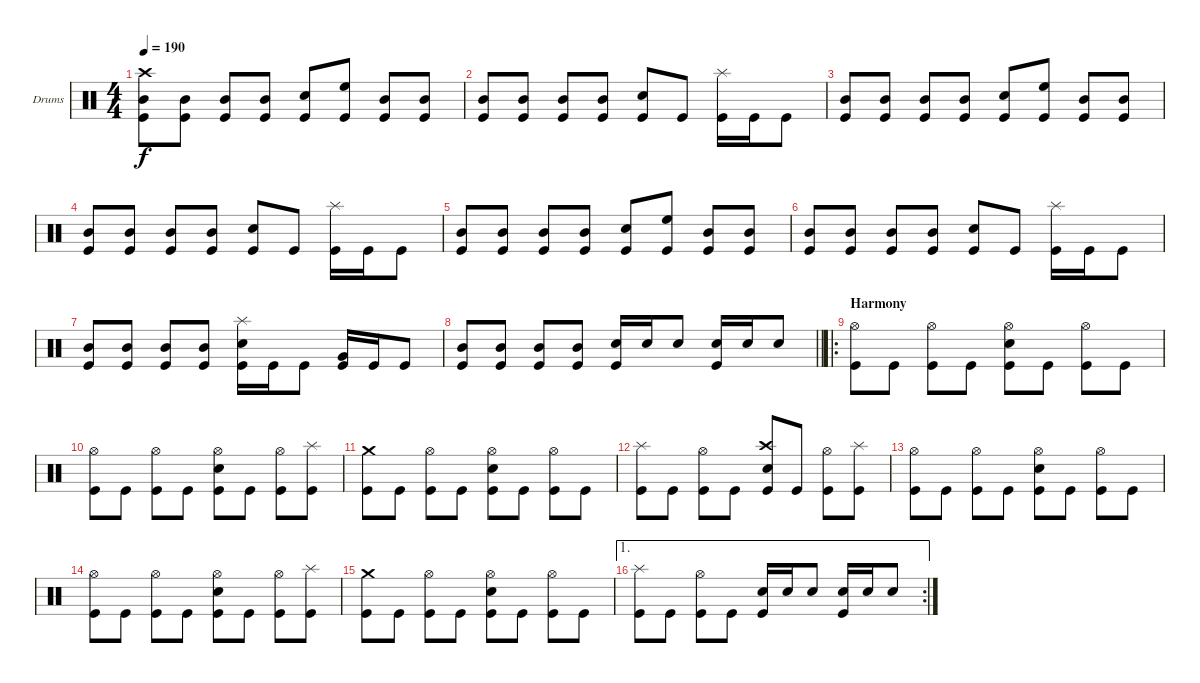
\bracketExtendMode groupsimilarinstruments
\firstSystemTrackNameOrientation horizontal
\otherSystemsTrackNameOrientation horizontal
\track ("Drumkit" "Drums") {instrument percussion}
\staff {score}
\articulation defaults
\ts (4 4)
\tempo 190
\clef neutral
\ks c
("Kick (hit)" "Mid Tom (hit)" "Crash high (hit)").8{dy f} ("Kick (hit)" "Mid Tom (hit)").8 ("Kick (hit)" "Mid Tom (hit)").8 ("Kick (hit)" "Mid Tom (hit)").8 ("Kick (hit)" "Snare (hit) 2").8 ("Kick (hit)" "High Floor Tom (hit)").8 ("Kick (hit)" "Mid Tom (hit)").8 ("Kick (hit)" "Mid Tom (hit)").8 |
("Kick (hit)" "Mid Tom (hit)").8 ("Kick (hit)" "Mid Tom (hit)").8 ("Kick (hit)" "Mid Tom (hit)").8 ("Kick (hit)" "Mid Tom (hit)").8 ("Kick (hit)" "Snare (hit) 2").8 "Kick (hit)".8 ("Kick (hit)" "Splash (hit)").16 "Kick (hit)".16 "Kick (hit)".8 |
("Kick (hit)" "Mid Tom (hit)").8 ("Kick (hit)" "Mid Tom (hit)").8 ("Kick (hit)" "Mid Tom (hit)").8 ("Kick (hit)" "Mid Tom (hit)").8 ("Kick (hit)" "Snare (hit) 2").8 ("Kick (hit)" "High Floor Tom (hit)").8 ("Kick (hit)" "Mid Tom (hit)").8 ("Kick (hit)" "Mid Tom (hit)").8 |
("Kick (hit)" "Mid Tom (hit)").8 ("Kick (hit)" "Mid Tom (hit)").8 ("Kick (hit)" "Mid Tom (hit)").8 ("Kick (hit)" "Mid Tom (hit)").8 ("Kick (hit)" "Snare (hit) 2").8 "Kick (hit)".8 ("Kick (hit)" "Splash (hit)").16 "Kick (hit)".16 "Kick (hit)".8 |
("Kick (hit)" "Mid Tom (hit)").8 ("Kick (hit)" "Mid Tom (hit)").8 ("Kick (hit)" "Mid Tom (hit)").8 ("Kick (hit)" "Mid Tom (hit)").8 ("Kick (hit)" "Snare (hit) 2").8 ("Kick (hit)" "High Floor Tom (hit)").8 ("Kick (hit)" "Mid Tom (hit)").8 ("Kick (hit)" "Mid Tom (hit)").8 |
("Kick (hit)" "Mid Tom (hit)").8 ("Kick (hit)" "Mid Tom (hit)").8 ("Kick (hit)" "Mid Tom (hit)").8 ("Kick (hit)" "Mid Tom (hit)").8 ("Kick (hit)" "Snare (hit) 2").8 "Kick (hit)".8 ("Kick (hit)" "Splash (hit)").16 "Kick (hit)".16 "Kick (hit)".8 |
("Kick (hit)" "Mid Tom (hit)").8 ("Kick (hit)" "Mid Tom (hit)").8 ("Kick (hit)" "Mid Tom (hit)").8 ("Kick (hit)" "Mid Tom (hit)").8 ("Kick (hit)" "Snare (hit) 2" "Splash (hit)").16 "Kick (hit)".16 "Kick (hit)".8 ("Kick (hit)" "Very Low Tom (hit)").16 "Kick (hit)".16 "Kick (hit)".8 |
\barLineRight lightlight
("Kick (hit)" "Mid Tom (hit)").8 ("Kick (hit)" "Mid Tom (hit)").8 ("Kick (hit)" "Mid Tom (hit)").8 ("Kick (hit)" "Mid Tom (hit)").8 ("Kick (hit)" "Snare (hit) 2").16 "Snare (hit) 2".16 "Snare (hit) 2".8 ("Kick (hit)" "Snare (hit) 2").16 "Snare (hit) 2".16 "Snare (hit) 2".8 |
\ro
\section ("" "Harmony")
("Kick (hit)" "Hi-Hat (open)").8 "Kick (hit)".8 ("Kick (hit)" "Hi-Hat (open)").8 "Kick (hit)".8 ("Kick (hit)" "Snare (hit) 2" "Hi-Hat (open)").8 "Kick (hit)".8 ("Kick (hit)" "Hi-Hat (open)").8 "Kick (hit)".8 |
("Kick (hit)" "Hi-Hat (open)").8 "Kick (hit)".8 ("Kick (hit)" "Hi-Hat (open)").8 "Kick (hit)".8 ("Kick (hit)" "Snare (hit) 2" "Hi-Hat (open)").8 "Kick (hit)".8 ("Kick (hit)" "Hi-Hat (open)").8 ("Kick (hit)" "Splash (hit)").8 |
("Kick (hit)" "Crash medium (hit)").8 "Kick (hit)".8 ("Kick (hit)" "Hi-Hat (open)").8 "Kick (hit)".8 ("Kick (hit)" "Snare (hit) 2" "Hi-Hat (open)").8 "Kick (hit)".8 ("Kick (hit)" "Hi-Hat (open)").8 "Kick (hit)".8 |
("Kick (hit)" "Splash (hit)").8 "Kick (hit)".8 ("Kick (hit)" "Hi-Hat (open)").8 "Kick (hit)".8 ("Kick (hit)" "Snare (hit) 2" "Crash high (hit)").8 "Kick (hit)".8 ("Kick (hit)" "Hi-Hat (open)").8 ("Kick (hit)" "Splash (hit)").8 |
("Kick (hit)" "Hi-Hat (open)").8 "Kick (hit)".8 ("Kick (hit)" "Hi-Hat (open)").8 "Kick (hit)".8 ("Kick (hit)" "Snare (hit) 2" "Hi-Hat (open)").8 "Kick (hit)".8 ("Kick (hit)" "Hi-Hat (open)").8 "Kick (hit)".8 |
("Kick (hit)" "Hi-Hat (open)").8 "Kick (hit)".8 ("Kick (hit)" "Hi-Hat (open)").8 "Kick (hit)".8 ("Kick (hit)" "Snare (hit) 2" "Hi-Hat (open)").8 "Kick (hit)".8 ("Kick (hit)" "Hi-Hat (open)").8 ("Kick (hit)" "Splash (hit)").8 |
("Kick (hit)" "Crash medium (hit)").8 "Kick (hit)".8 ("Kick (hit)" "Hi-Hat (open)").8 "Kick (hit)".8 ("Kick (hit)" "Snare (hit) 2" "Hi-Hat (open)").8 "Kick (hit)".8 ("Kick (hit)" "Hi-Hat (open)").8 "Kick (hit)".8 |
\ae 1
\rc 2
("Kick (hit)" "Splash (hit)").8 "Kick (hit)".8 ("Kick (hit)" "Hi-Hat (open)").8 "Kick (hit)".8 ("Kick (hit)" "Snare (hit) 2").16 "Snare (hit) 2".16 "Snare (hit) 2".8 ("Kick (hit)" "Snare (hit) 2").16 "Snare (hit) 2".16 "Snare (hit) 2".8
